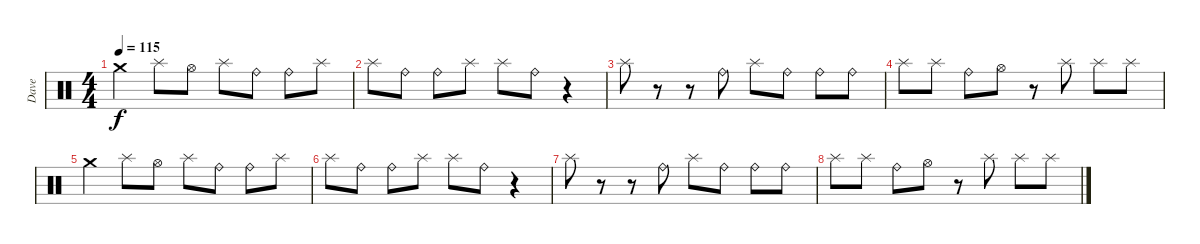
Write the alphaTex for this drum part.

\track ("Dave" "Dave") {instrument percussion}
\staff {score}
\articulation defaults
\ts (4 4)
\tempo 115
\clef neutral
\ks c "Crash medium (hit)".4{dy f} "Splash (hit)".8 "Hi-Hat (open)".8 "Splash (hit)".8 "Ride (bell)".8 "Ride (bell)".8 "Splash (hit)".8
|
"Splash (hit)".8 "Ride (bell)".8 "Ride (bell)".8 "Splash (hit)".8 "Splash (hit)".8 "Ride (bell)".8 r.4 |
"Splash (hit)".8 r.8 r.8 "Ride (bell)".8 "Splash (hit)".8 "Ride (bell)".8 "Ride (bell)".8 "Ride (bell)".8 |
"Splash (hit)".8 "Splash (hit)".8 "Ride (bell)".8 "Hi-Hat (open)".8 r.8 "Splash (hit)".8 "Splash (hit)".8 "Splash (hit)".8 |
"Crash medium (hit)".4 "Splash (hit)".8 "Hi-Hat (open)".8 "Splash (hit)".8 "Ride (bell)".8 "Ride (bell)".8 "Splash (hit)".8 |
"Splash (hit)".8 "Ride (bell)".8 "Ride (bell)".8 "Splash (hit)".8 "Splash (hit)".8 "Ride (bell)".8 r.4 |
"Splash (hit)".8 r.8 r.8 "Ride (bell)".8 "Splash (hit)".8 "Ride (bell)".8 "Ride (bell)".8 "Ride (bell)".8 |
"Splash (hit)".8 "Splash (hit)".8 "Ride (bell)".8 "Hi-Hat (open)".8 r.8 "Splash (hit)".8 "Splash (hit)".8 "Splash (hit)".8
